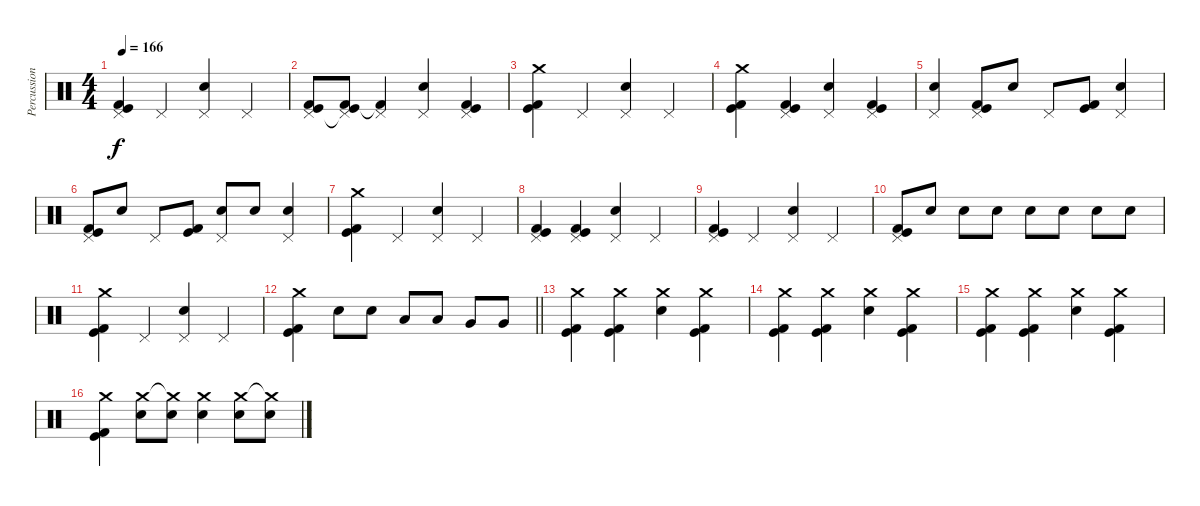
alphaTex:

\track ("Percussion" "Percussion") {instrument percussion}
\staff {score}
\articulation defaults
\ts (4 4)
\tempo 166
\clef neutral
\ks c
("Kick (hit) 2" "Pedal Hi-Hat (hit)" "Kick (hit)").4{dy f} "Pedal Hi-Hat (hit)".4 ("Electric Snare (hit)" "Pedal Hi-Hat (hit)").4 "Pedal Hi-Hat (hit)".4 |
("Kick (hit) 2" "Pedal Hi-Hat (hit)" "Kick (hit)").8 ("Kick (hit) 2" "Pedal Hi-Hat (hit)"{t} "Kick (hit)").8 ("Kick (hit) 2"{t} "Pedal Hi-Hat (hit)").4 ("Electric Snare (hit)" "Pedal Hi-Hat (hit)").4 ("Kick (hit) 2" "Pedal Hi-Hat (hit)" "Kick (hit)").4 |
("Kick (hit) 2" "Crash medium (hit)" "Kick (hit)").4 "Pedal Hi-Hat (hit)".4 ("Electric Snare (hit)" "Pedal Hi-Hat (hit)").4 "Pedal Hi-Hat (hit)".4 |
("Kick (hit) 2" "Crash medium (hit)" "Kick (hit)").4 ("Kick (hit) 2" "Pedal Hi-Hat (hit)" "Kick (hit)").4 ("Electric Snare (hit)" "Pedal Hi-Hat (hit)").4 ("Kick (hit) 2" "Pedal Hi-Hat (hit)" "Kick (hit)").4 |
("Electric Snare (hit)" "Pedal Hi-Hat (hit)").4 ("Kick (hit) 2" "Pedal Hi-Hat (hit)" "Kick (hit)").8 "Electric Snare (hit)".8 "Pedal Hi-Hat (hit)".8 ("Kick (hit) 2" "Kick (hit)").8 ("Electric Snare (hit)" "Pedal Hi-Hat (hit)").4 |
("Kick (hit) 2" "Pedal Hi-Hat (hit)" "Kick (hit)").8 "Electric Snare (hit)".8 "Pedal Hi-Hat (hit)".8 ("Kick (hit) 2" "Kick (hit)").8 ("Electric Snare (hit)" "Pedal Hi-Hat (hit)").8 "Electric Snare (hit)".8 ("Electric Snare (hit)" "Pedal Hi-Hat (hit)").4 |
("Kick (hit) 2" "Crash medium (hit)" "Kick (hit)").4 "Pedal Hi-Hat (hit)".4 ("Electric Snare (hit)" "Pedal Hi-Hat (hit)").4 "Pedal Hi-Hat (hit)".4 |
("Kick (hit) 2" "Pedal Hi-Hat (hit)" "Kick (hit)").4 ("Kick (hit) 2" "Pedal Hi-Hat (hit)" "Kick (hit)").4 ("Electric Snare (hit)" "Pedal Hi-Hat (hit)").4 "Pedal Hi-Hat (hit)".4 |
("Kick (hit) 2" "Pedal Hi-Hat (hit)" "Kick (hit)").4 "Pedal Hi-Hat (hit)".4 ("Electric Snare (hit)" "Pedal Hi-Hat (hit)").4 "Pedal Hi-Hat (hit)".4 |
("Kick (hit) 2" "Pedal Hi-Hat (hit)" "Kick (hit)").8 "Electric Snare (hit)".8 "Electric Snare (hit)".8 "Electric Snare (hit)".8 "Electric Snare (hit)".8 "Electric Snare (hit)".8 "Electric Snare (hit)".8 "Electric Snare (hit)".8 |
("Kick (hit) 2" "Crash medium (hit)" "Kick (hit)").4 "Pedal Hi-Hat (hit)".4 ("Electric Snare (hit)" "Pedal Hi-Hat (hit)").4 "Pedal Hi-Hat (hit)".4 |
\barLineRight lightlight
("Kick (hit) 2" "Crash medium (hit)" "Kick (hit)").4 "Electric Snare (hit)".8 "Electric Snare (hit)".8 "Low Tom (hit)".8 "Low Tom (hit)".8 "Very Low Tom (hit)".8 "Very Low Tom (hit)".8 |
("Kick (hit) 2" "Crash medium (hit)" "Kick (hit)").4 ("Kick (hit) 2" "Crash medium (hit)" "Kick (hit)").4 ("Electric Snare (hit)" "Crash medium (hit)").4 ("Kick (hit) 2" "Crash medium (hit)" "Kick (hit)").4 |
("Kick (hit) 2" "Crash medium (hit)" "Kick (hit)").4 ("Kick (hit) 2" "Crash medium (hit)" "Kick (hit)").4 ("Electric Snare (hit)" "Crash medium (hit)").4 ("Kick (hit) 2" "Crash medium (hit)" "Kick (hit)").4 |
("Kick (hit) 2" "Crash medium (hit)" "Kick (hit)").4 ("Kick (hit) 2" "Crash medium (hit)" "Kick (hit)").4 ("Electric Snare (hit)" "Crash medium (hit)").4 ("Kick (hit) 2" "Crash medium (hit)" "Kick (hit)").4 |
("Kick (hit) 2" "Crash medium (hit)" "Kick (hit)").4 ("Electric Snare (hit)" "Crash medium (hit)").8 ("Electric Snare (hit)" "Crash medium (hit)"{t}).8 ("Electric Snare (hit)" "Crash medium (hit)").4 ("Electric Snare (hit)" "Crash medium (hit)").8 ("Electric Snare (hit)" "Crash medium (hit)"{t}).8
